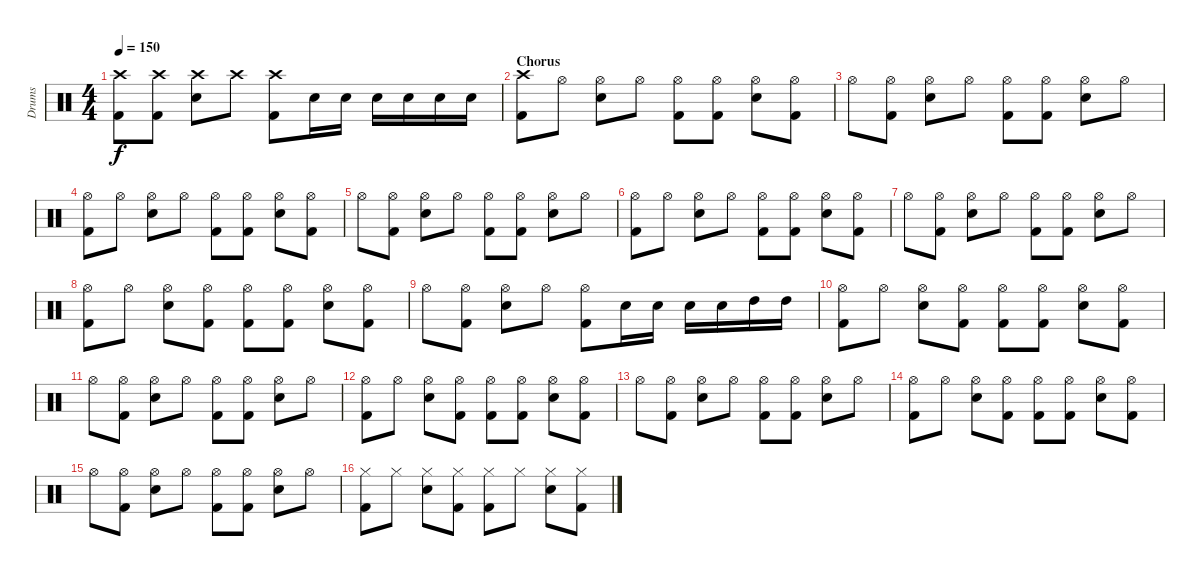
\track ("Drums" "Drums") {instrument percussion}
\staff {score}
\articulation defaults
\ts (4 4)
\tempo 150
\clef neutral
\ks c
("Crash high (hit)" "Kick (hit) 2").8{dy f} ("Crash high (hit)" "Kick (hit) 2").8 ("Crash high (hit)" "Electric Snare (hit)").8 "Crash high (hit)".8 ("Crash high (hit)" "Kick (hit) 2").8 "Electric Snare (hit)".16 "Electric Snare (hit)".16 "Electric Snare (hit)".16 "Electric Snare (hit)".16 "Electric Snare (hit)".16 "Electric Snare (hit)".16 |
\section ("" "Chorus")
("Crash high (hit)" "Kick (hit) 2").8 "Hi-Hat (open)".8 ("Hi-Hat (open)" "Electric Snare (hit)").8 "Hi-Hat (open)".8 ("Hi-Hat (open)" "Kick (hit) 2").8 ("Hi-Hat (open)" "Kick (hit) 2").8 ("Hi-Hat (open)" "Electric Snare (hit)").8 ("Hi-Hat (open)" "Kick (hit) 2").8 |
"Hi-Hat (open)".8 ("Hi-Hat (open)" "Kick (hit) 2").8 ("Hi-Hat (open)" "Electric Snare (hit)").8 "Hi-Hat (open)".8 ("Hi-Hat (open)" "Kick (hit) 2").8 ("Hi-Hat (open)" "Kick (hit) 2").8 ("Hi-Hat (open)" "Electric Snare (hit)").8 "Hi-Hat (open)".8 |
("Hi-Hat (open)" "Kick (hit) 2").8 "Hi-Hat (open)".8 ("Hi-Hat (open)" "Electric Snare (hit)").8 "Hi-Hat (open)".8 ("Hi-Hat (open)" "Kick (hit) 2").8 ("Hi-Hat (open)" "Kick (hit) 2").8 ("Hi-Hat (open)" "Electric Snare (hit)").8 ("Hi-Hat (open)" "Kick (hit) 2").8 |
"Hi-Hat (open)".8 ("Hi-Hat (open)" "Kick (hit) 2").8 ("Hi-Hat (open)" "Electric Snare (hit)").8 "Hi-Hat (open)".8 ("Hi-Hat (open)" "Kick (hit) 2").8 ("Hi-Hat (open)" "Kick (hit) 2").8 ("Hi-Hat (open)" "Electric Snare (hit)").8 "Hi-Hat (open)".8 |
("Hi-Hat (open)" "Kick (hit) 2").8 "Hi-Hat (open)".8 ("Hi-Hat (open)" "Electric Snare (hit)").8 "Hi-Hat (open)".8 ("Hi-Hat (open)" "Kick (hit) 2").8 ("Hi-Hat (open)" "Kick (hit) 2").8 ("Hi-Hat (open)" "Electric Snare (hit)").8 ("Hi-Hat (open)" "Kick (hit) 2").8 |
"Hi-Hat (open)".8 ("Hi-Hat (open)" "Kick (hit) 2").8 ("Hi-Hat (open)" "Electric Snare (hit)").8 "Hi-Hat (open)".8 ("Hi-Hat (open)" "Kick (hit) 2").8 ("Hi-Hat (open)" "Kick (hit) 2").8 ("Hi-Hat (open)" "Electric Snare (hit)").8 "Hi-Hat (open)".8 |
("Hi-Hat (open)" "Kick (hit) 2").8 "Hi-Hat (open)".8 ("Hi-Hat (open)" "Electric Snare (hit)").8 ("Hi-Hat (open)" "Kick (hit) 2").8 ("Hi-Hat (open)" "Kick (hit) 2").8 ("Hi-Hat (open)" "Kick (hit) 2").8 ("Hi-Hat (open)" "Electric Snare (hit)").8 ("Hi-Hat (open)" "Kick (hit) 2").8 |
"Hi-Hat (open)".8 ("Hi-Hat (open)" "Kick (hit) 2").8 ("Hi-Hat (open)" "Electric Snare (hit)").8 "Hi-Hat (open)".8 ("Hi-Hat (open)" "Kick (hit) 2").8 "Electric Snare (hit)".16 "Electric Snare (hit)".16 "Electric Snare (hit)".16 "Electric Snare (hit)".16 "High Tom (hit)".16 "High Tom (hit)".16 |
("Hi-Hat (open)" "Kick (hit) 2").8 "Hi-Hat (open)".8 ("Hi-Hat (open)" "Electric Snare (hit)").8 ("Hi-Hat (open)" "Kick (hit) 2").8 ("Hi-Hat (open)" "Kick (hit) 2").8 ("Hi-Hat (open)" "Kick (hit) 2").8 ("Hi-Hat (open)" "Electric Snare (hit)").8 ("Hi-Hat (open)" "Kick (hit) 2").8 |
"Hi-Hat (open)".8 ("Hi-Hat (open)" "Kick (hit) 2").8 ("Hi-Hat (open)" "Electric Snare (hit)").8 "Hi-Hat (open)".8 ("Hi-Hat (open)" "Kick (hit) 2").8 ("Hi-Hat (open)" "Kick (hit) 2").8 ("Hi-Hat (open)" "Electric Snare (hit)").8 "Hi-Hat (open)".8 |
("Hi-Hat (open)" "Kick (hit) 2").8 "Hi-Hat (open)".8 ("Hi-Hat (open)" "Electric Snare (hit)").8 ("Hi-Hat (open)" "Kick (hit) 2").8 ("Hi-Hat (open)" "Kick (hit) 2").8 ("Hi-Hat (open)" "Kick (hit) 2").8 ("Hi-Hat (open)" "Electric Snare (hit)").8 ("Hi-Hat (open)" "Kick (hit) 2").8 |
"Hi-Hat (open)".8 ("Hi-Hat (open)" "Kick (hit) 2").8 ("Hi-Hat (open)" "Electric Snare (hit)").8 "Hi-Hat (open)".8 ("Hi-Hat (open)" "Kick (hit) 2").8 ("Hi-Hat (open)" "Kick (hit) 2").8 ("Hi-Hat (open)" "Electric Snare (hit)").8 "Hi-Hat (open)".8 |
("Hi-Hat (open)" "Kick (hit) 2").8 "Hi-Hat (open)".8 ("Hi-Hat (open)" "Electric Snare (hit)").8 ("Hi-Hat (open)" "Kick (hit) 2").8 ("Hi-Hat (open)" "Kick (hit) 2").8 ("Hi-Hat (open)" "Kick (hit) 2").8 ("Hi-Hat (open)" "Electric Snare (hit)").8 ("Hi-Hat (open)" "Kick (hit) 2").8 |
"Hi-Hat (open)".8 ("Hi-Hat (open)" "Kick (hit) 2").8 ("Hi-Hat (open)" "Electric Snare (hit)").8 "Hi-Hat (open)".8 ("Hi-Hat (open)" "Kick (hit) 2").8 ("Hi-Hat (open)" "Kick (hit) 2").8 ("Hi-Hat (open)" "Electric Snare (hit)").8 "Hi-Hat (open)".8 |
("Hi-Hat (closed)" "Kick (hit) 2").8 "Hi-Hat (closed)".8 ("Hi-Hat (closed)" "Electric Snare (hit)").8 ("Hi-Hat (closed)" "Kick (hit) 2").8 ("Hi-Hat (closed)" "Kick (hit) 2").8 "Hi-Hat (closed)".8 ("Hi-Hat (closed)" "Electric Snare (hit)").8 ("Hi-Hat (closed)" "Kick (hit) 2").8
